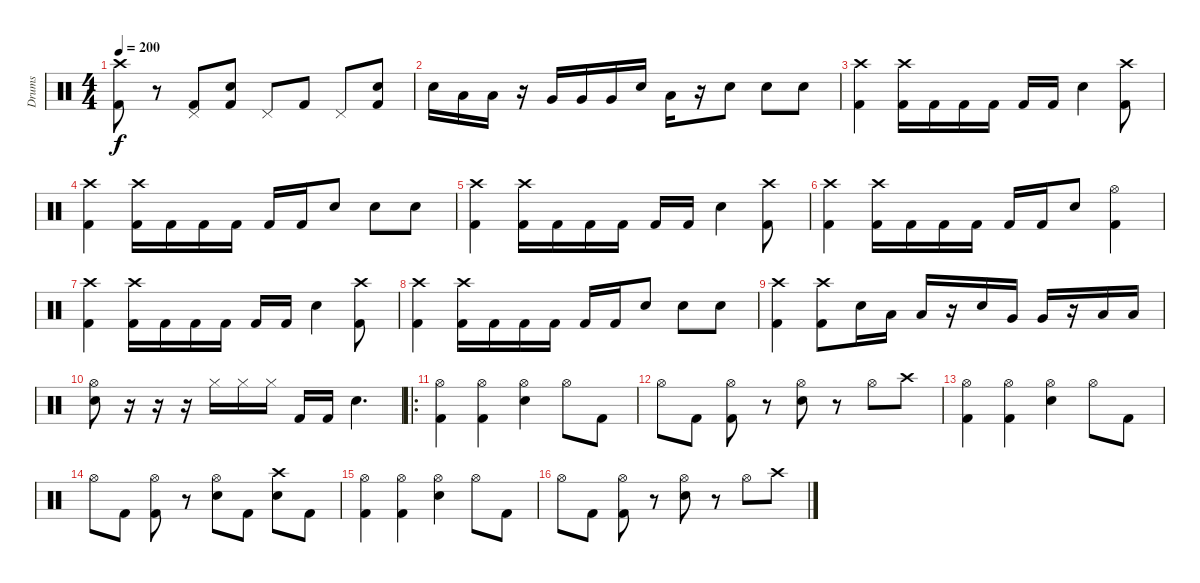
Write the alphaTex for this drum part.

\track ("Drums" "Drums") {instrument percussion}
\staff {score}
\articulation defaults
\ts (4 4)
\tempo 200
\clef neutral
\ks c
("Crash high (hit)" "Kick (hit) 2").8{dy f} r.8 ("Pedal Hi-Hat (hit)" "Kick (hit) 2").8 ("Snare (hit) 2" "Kick (hit) 2").8 "Pedal Hi-Hat (hit)".8 "Kick (hit) 2".8 "Pedal Hi-Hat (hit)".8 ("Snare (hit) 2" "Kick (hit) 2").8 |
"Snare (hit) 2".16 "Low Tom (hit)".16 "Low Tom (hit)".16 r.16 "Very Low Tom (hit)".16 "Very Low Tom (hit)".16 "Very Low Tom (hit)".16 "Snare (hit) 2".16 "Low Tom (hit)".16 r.16 "Snare (hit) 2".8 "Snare (hit) 2".8 "Snare (hit) 2".8 |
("Crash high (hit)" "Kick (hit) 2").4 ("Crash high (hit)" "Kick (hit) 2").16 "Kick (hit) 2".16 "Kick (hit) 2".16 "Kick (hit) 2".16 "Kick (hit) 2".16 "Kick (hit) 2".16 "Snare (hit) 2".4 ("Crash high (hit)" "Kick (hit) 2").8 |
("Crash high (hit)" "Kick (hit) 2").4 ("Crash high (hit)" "Kick (hit) 2").16 "Kick (hit) 2".16 "Kick (hit) 2".16 "Kick (hit) 2".16 "Kick (hit) 2".16 "Kick (hit) 2".16 "Snare (hit) 2".8 "Snare (hit) 2".8 "Snare (hit) 2".8 |
("Crash high (hit)" "Kick (hit) 2").4 ("Crash high (hit)" "Kick (hit) 2").16 "Kick (hit) 2".16 "Kick (hit) 2".16 "Kick (hit) 2".16 "Kick (hit) 2".16 "Kick (hit) 2".16 "Snare (hit) 2".4 ("Crash high (hit)" "Kick (hit) 2").8 |
("Crash high (hit)" "Kick (hit) 2").4 ("Crash high (hit)" "Kick (hit) 2").16 "Kick (hit) 2".16 "Kick (hit) 2".16 "Kick (hit) 2".16 "Kick (hit) 2".16 "Kick (hit) 2".16 "Snare (hit) 2".8 ("Hi-Hat (open)" "Kick (hit) 2").4 |
("Crash high (hit)" "Kick (hit) 2").4 ("Crash high (hit)" "Kick (hit) 2").16 "Kick (hit) 2".16 "Kick (hit) 2".16 "Kick (hit) 2".16 "Kick (hit) 2".16 "Kick (hit) 2".16 "Snare (hit) 2".4 ("Crash high (hit)" "Kick (hit) 2").8 |
("Crash high (hit)" "Kick (hit) 2").4 ("Crash high (hit)" "Kick (hit) 2").16 "Kick (hit) 2".16 "Kick (hit) 2".16 "Kick (hit) 2".16 "Kick (hit) 2".16 "Kick (hit) 2".16 "Snare (hit) 2".8 "Snare (hit) 2".8 "Snare (hit) 2".8 |
("Crash high (hit)" "Kick (hit) 2").4 ("Crash high (hit)" "Kick (hit) 2").8 "Snare (hit) 2".16 "Low Tom (hit)".16 "Low Tom (hit)".16 r.16 "Snare (hit) 2".16 "Very Low Tom (hit)".16 "Very Low Tom (hit)".16 r.16 "Low Tom (hit)".16 "Low Tom (hit)".16 |
("Hi-Hat (open)" "Snare (hit) 2").8 r.16 r.16 r.16 "Hi-Hat (closed)".16 "Hi-Hat (closed)".16 "Hi-Hat (closed)".16 "Kick (hit) 2".16 "Kick (hit) 2".16 "Snare (hit) 2".4{d} |
\ro
("Hi-Hat (open)" "Kick (hit) 2").4 ("Hi-Hat (open)" "Kick (hit) 2").4 ("Hi-Hat (open)" "Snare (hit) 2").4 "Hi-Hat (open)".8 "Kick (hit) 2".8 |
"Hi-Hat (open)".8 "Kick (hit) 2".8 ("Hi-Hat (open)" "Kick (hit) 2").8 r.8 ("Hi-Hat (open)" "Snare (hit) 2").8 r.8 "Hi-Hat (open)".8 "Crash high (hit)".8 |
("Hi-Hat (open)" "Kick (hit) 2").4 ("Hi-Hat (open)" "Kick (hit) 2").4 ("Hi-Hat (open)" "Snare (hit) 2").4 "Hi-Hat (open)".8 "Kick (hit) 2".8 |
"Hi-Hat (open)".8 "Kick (hit) 2".8 ("Hi-Hat (open)" "Kick (hit) 2").8 r.8 ("Hi-Hat (open)" "Snare (hit) 2").8 "Kick (hit) 2".8 ("Crash high (hit)" "Snare (hit) 2").8 "Kick (hit) 2".8 |
("Hi-Hat (open)" "Kick (hit) 2").4 ("Hi-Hat (open)" "Kick (hit) 2").4 ("Hi-Hat (open)" "Snare (hit) 2").4 "Hi-Hat (open)".8 "Kick (hit) 2".8 |
"Hi-Hat (open)".8 "Kick (hit) 2".8 ("Hi-Hat (open)" "Kick (hit) 2").8 r.8 ("Hi-Hat (open)" "Snare (hit) 2").8 r.8 "Hi-Hat (open)".8 "Crash high (hit)".8
